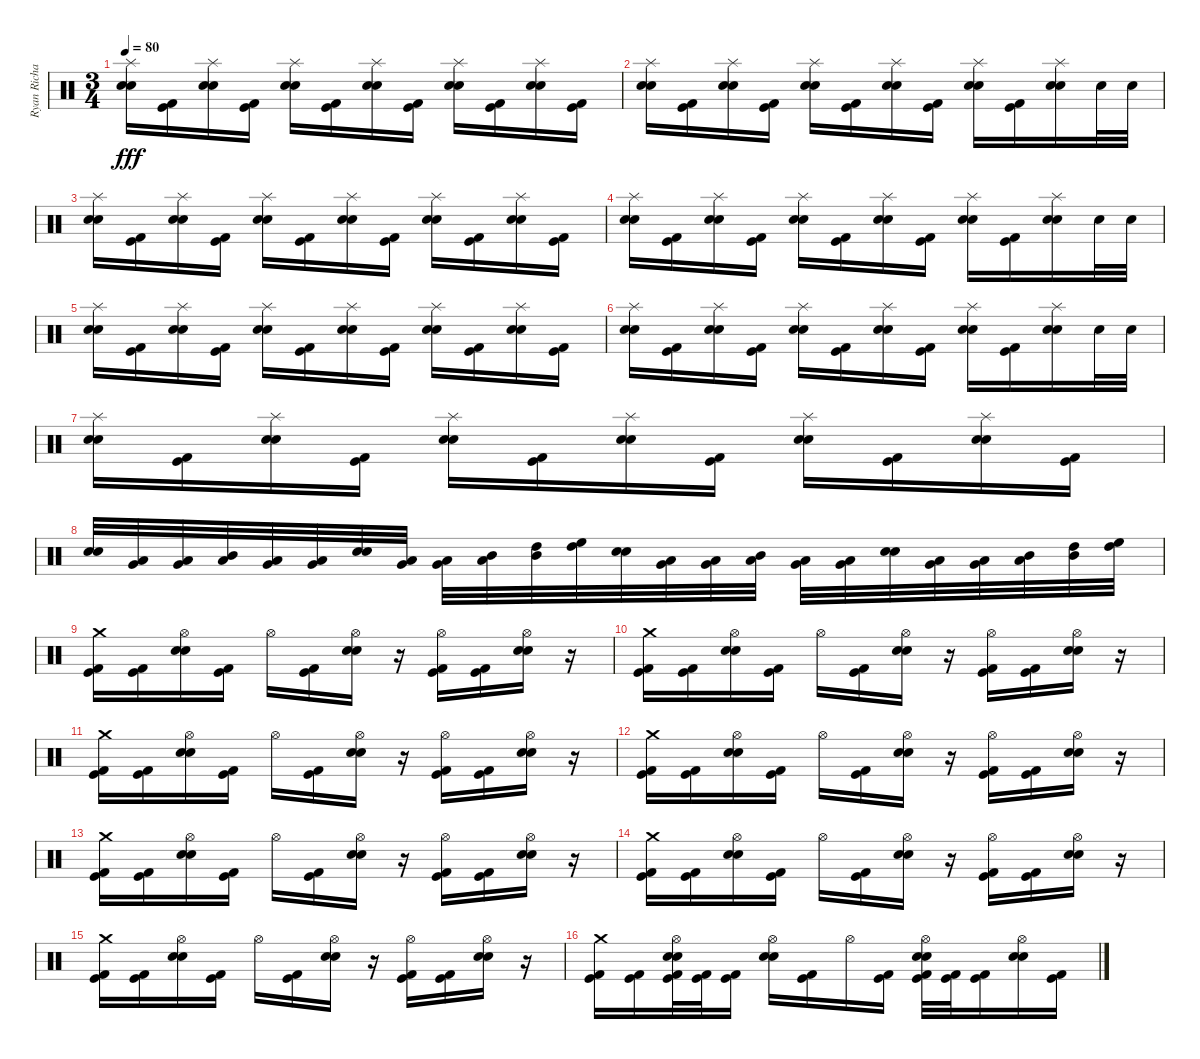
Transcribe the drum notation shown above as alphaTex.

\track ("Ryan Richards" "Ryan Richa") {instrument percussion}
\staff {score}
\articulation defaults
\ts (3 4)
\tempo 80
\clef neutral
\ks c
("Splash (hit)" "Snare (hit) 2" "Electric Snare (hit)").16{dy fff} ("Kick (hit)" "Kick (hit) 2").16 ("Splash (hit)" "Snare (hit) 2" "Electric Snare (hit)").16 ("Kick (hit)" "Kick (hit) 2").16 ("Splash (hit)" "Snare (hit) 2" "Electric Snare (hit)").16 ("Kick (hit)" "Kick (hit) 2").16 ("Splash (hit)" "Snare (hit) 2" "Electric Snare (hit)").16 ("Kick (hit)" "Kick (hit) 2").16 ("Splash (hit)" "Snare (hit) 2" "Electric Snare (hit)").16 ("Kick (hit)" "Kick (hit) 2").16 ("Splash (hit)" "Snare (hit) 2" "Electric Snare (hit)").16 ("Kick (hit)" "Kick (hit) 2").16 |
("Splash (hit)" "Snare (hit) 2" "Electric Snare (hit)").16 ("Kick (hit)" "Kick (hit) 2").16 ("Splash (hit)" "Snare (hit) 2" "Electric Snare (hit)").16 ("Kick (hit)" "Kick (hit) 2").16 ("Splash (hit)" "Snare (hit) 2" "Electric Snare (hit)").16 ("Kick (hit)" "Kick (hit) 2").16 ("Splash (hit)" "Snare (hit) 2" "Electric Snare (hit)").16 ("Kick (hit)" "Kick (hit) 2").16 ("Splash (hit)" "Snare (hit) 2" "Electric Snare (hit)").16 ("Kick (hit)" "Kick (hit) 2").16 ("Splash (hit)" "Snare (hit) 2" "Electric Snare (hit)").16 "Electric Snare (hit)".32 "Electric Snare (hit)".32 |
("Splash (hit)" "Snare (hit) 2" "Electric Snare (hit)").16 ("Kick (hit)" "Kick (hit) 2").16 ("Splash (hit)" "Snare (hit) 2" "Electric Snare (hit)").16 ("Kick (hit)" "Kick (hit) 2").16 ("Splash (hit)" "Snare (hit) 2" "Electric Snare (hit)").16 ("Kick (hit)" "Kick (hit) 2").16 ("Splash (hit)" "Snare (hit) 2" "Electric Snare (hit)").16 ("Kick (hit)" "Kick (hit) 2").16 ("Splash (hit)" "Snare (hit) 2" "Electric Snare (hit)").16 ("Kick (hit)" "Kick (hit) 2").16 ("Splash (hit)" "Snare (hit) 2" "Electric Snare (hit)").16 ("Kick (hit)" "Kick (hit) 2").16 |
("Splash (hit)" "Snare (hit) 2" "Electric Snare (hit)").16 ("Kick (hit)" "Kick (hit) 2").16 ("Splash (hit)" "Snare (hit) 2" "Electric Snare (hit)").16 ("Kick (hit)" "Kick (hit) 2").16 ("Splash (hit)" "Snare (hit) 2" "Electric Snare (hit)").16 ("Kick (hit)" "Kick (hit) 2").16 ("Splash (hit)" "Snare (hit) 2" "Electric Snare (hit)").16 ("Kick (hit)" "Kick (hit) 2").16 ("Splash (hit)" "Snare (hit) 2" "Electric Snare (hit)").16 ("Kick (hit)" "Kick (hit) 2").16 ("Splash (hit)" "Snare (hit) 2" "Electric Snare (hit)").16 "Electric Snare (hit)".32 "Electric Snare (hit)".32 |
("Splash (hit)" "Snare (hit) 2" "Electric Snare (hit)").16 ("Kick (hit)" "Kick (hit) 2").16 ("Splash (hit)" "Snare (hit) 2" "Electric Snare (hit)").16 ("Kick (hit)" "Kick (hit) 2").16 ("Splash (hit)" "Snare (hit) 2" "Electric Snare (hit)").16 ("Kick (hit)" "Kick (hit) 2").16 ("Splash (hit)" "Snare (hit) 2" "Electric Snare (hit)").16 ("Kick (hit)" "Kick (hit) 2").16 ("Splash (hit)" "Snare (hit) 2" "Electric Snare (hit)").16 ("Kick (hit)" "Kick (hit) 2").16 ("Splash (hit)" "Snare (hit) 2" "Electric Snare (hit)").16 ("Kick (hit)" "Kick (hit) 2").16 |
("Splash (hit)" "Snare (hit) 2" "Electric Snare (hit)").16 ("Kick (hit)" "Kick (hit) 2").16 ("Splash (hit)" "Snare (hit) 2" "Electric Snare (hit)").16 ("Kick (hit)" "Kick (hit) 2").16 ("Splash (hit)" "Snare (hit) 2" "Electric Snare (hit)").16 ("Kick (hit)" "Kick (hit) 2").16 ("Splash (hit)" "Snare (hit) 2" "Electric Snare (hit)").16 ("Kick (hit)" "Kick (hit) 2").16 ("Splash (hit)" "Snare (hit) 2" "Electric Snare (hit)").16 ("Kick (hit)" "Kick (hit) 2").16 ("Splash (hit)" "Snare (hit) 2" "Electric Snare (hit)").16 "Electric Snare (hit)".32 "Electric Snare (hit)".32 |
("Splash (hit)" "Snare (hit) 2" "Electric Snare (hit)").16 ("Kick (hit)" "Kick (hit) 2").16 ("Splash (hit)" "Snare (hit) 2" "Electric Snare (hit)").16 ("Kick (hit)" "Kick (hit) 2").16 ("Splash (hit)" "Snare (hit) 2" "Electric Snare (hit)").16 ("Kick (hit)" "Kick (hit) 2").16 ("Splash (hit)" "Snare (hit) 2" "Electric Snare (hit)").16 ("Kick (hit)" "Kick (hit) 2").16 ("Splash (hit)" "Snare (hit) 2" "Electric Snare (hit)").16 ("Kick (hit)" "Kick (hit) 2").16 ("Splash (hit)" "Snare (hit) 2" "Electric Snare (hit)").16 ("Kick (hit)" "Kick (hit) 2").16 |
("Snare (hit) 2" "Electric Snare (hit)").32 ("Very Low Tom (hit)" "Low Floor Tom (hit)").32 ("Low Tom (hit)" "Very Low Tom (hit)").32 ("Mid Tom (hit)" "Low Tom (hit)").32 ("Low Tom (hit)" "Very Low Tom (hit)").32 ("Very Low Tom (hit)" "Low Floor Tom (hit)").32 ("Snare (hit) 2" "Electric Snare (hit)").32 ("Very Low Tom (hit)" "Low Floor Tom (hit)").32 ("Low Tom (hit)" "Very Low Tom (hit)").32 ("Mid Tom (hit)" "Low Tom (hit)").32 ("High Tom (hit)" "Mid Tom (hit)").32 ("High Floor Tom (hit)" "High Tom (hit)").32 ("Snare (hit) 2" "Electric Snare (hit)").32 ("Very Low Tom (hit)" "Low Floor Tom (hit)").32 ("Low Tom (hit)" "Very Low Tom (hit)").32 ("Mid Tom (hit)" "Low Tom (hit)").32 ("Low Tom (hit)" "Very Low Tom (hit)").32 ("Very Low Tom (hit)" "Low Floor Tom (hit)").32 ("Snare (hit) 2" "Electric Snare (hit)").32 ("Very Low Tom (hit)" "Low Floor Tom (hit)").32 ("Low Tom (hit)" "Very Low Tom (hit)").32 ("Mid Tom (hit)" "Low Tom (hit)").32 ("High Tom (hit)" "Mid Tom (hit)").32 ("High Floor Tom (hit)" "High Tom (hit)").32 |
("Kick (hit)" "Crash medium (hit)" "Kick (hit) 2").16 ("Kick (hit)" "Kick (hit) 2").16 ("Hi-Hat (open)" "Snare (hit) 2" "Electric Snare (hit)").16 ("Kick (hit)" "Kick (hit) 2").16 "Hi-Hat (open)".16 ("Kick (hit)" "Kick (hit) 2").16 ("Hi-Hat (open)" "Snare (hit) 2" "Electric Snare (hit)").16 r.16 ("Kick (hit)" "Hi-Hat (open)" "Kick (hit) 2").16 ("Kick (hit)" "Kick (hit) 2").16 ("Hi-Hat (open)" "Snare (hit) 2" "Electric Snare (hit)").16 r.16 |
("Kick (hit)" "Crash medium (hit)" "Kick (hit) 2").16 ("Kick (hit)" "Kick (hit) 2").16 ("Hi-Hat (open)" "Snare (hit) 2" "Electric Snare (hit)").16 ("Kick (hit)" "Kick (hit) 2").16 "Hi-Hat (open)".16 ("Kick (hit)" "Kick (hit) 2").16 ("Hi-Hat (open)" "Snare (hit) 2" "Electric Snare (hit)").16 r.16 ("Kick (hit)" "Hi-Hat (open)" "Kick (hit) 2").16 ("Kick (hit)" "Kick (hit) 2").16 ("Hi-Hat (open)" "Snare (hit) 2" "Electric Snare (hit)").16 r.16 |
("Kick (hit)" "Crash medium (hit)" "Kick (hit) 2").16 ("Kick (hit)" "Kick (hit) 2").16 ("Hi-Hat (open)" "Snare (hit) 2" "Electric Snare (hit)").16 ("Kick (hit)" "Kick (hit) 2").16 "Hi-Hat (open)".16 ("Kick (hit)" "Kick (hit) 2").16 ("Hi-Hat (open)" "Snare (hit) 2" "Electric Snare (hit)").16 r.16 ("Kick (hit)" "Hi-Hat (open)" "Kick (hit) 2").16 ("Kick (hit)" "Kick (hit) 2").16 ("Hi-Hat (open)" "Snare (hit) 2" "Electric Snare (hit)").16 r.16 |
("Kick (hit)" "Crash medium (hit)" "Kick (hit) 2").16 ("Kick (hit)" "Kick (hit) 2").16 ("Hi-Hat (open)" "Snare (hit) 2" "Electric Snare (hit)").16 ("Kick (hit)" "Kick (hit) 2").16 "Hi-Hat (open)".16 ("Kick (hit)" "Kick (hit) 2").16 ("Hi-Hat (open)" "Snare (hit) 2" "Electric Snare (hit)").16 r.16 ("Kick (hit)" "Hi-Hat (open)" "Kick (hit) 2").16 ("Kick (hit)" "Kick (hit) 2").16 ("Hi-Hat (open)" "Snare (hit) 2" "Electric Snare (hit)").16 r.16 |
("Kick (hit)" "Crash medium (hit)" "Kick (hit) 2").16 ("Kick (hit)" "Kick (hit) 2").16 ("Hi-Hat (open)" "Snare (hit) 2" "Electric Snare (hit)").16 ("Kick (hit)" "Kick (hit) 2").16 "Hi-Hat (open)".16 ("Kick (hit)" "Kick (hit) 2").16 ("Hi-Hat (open)" "Snare (hit) 2" "Electric Snare (hit)").16 r.16 ("Kick (hit)" "Hi-Hat (open)" "Kick (hit) 2").16 ("Kick (hit)" "Kick (hit) 2").16 ("Hi-Hat (open)" "Snare (hit) 2" "Electric Snare (hit)").16 r.16 |
("Kick (hit)" "Crash medium (hit)" "Kick (hit) 2").16 ("Kick (hit)" "Kick (hit) 2").16 ("Hi-Hat (open)" "Snare (hit) 2" "Electric Snare (hit)").16 ("Kick (hit)" "Kick (hit) 2").16 "Hi-Hat (open)".16 ("Kick (hit)" "Kick (hit) 2").16 ("Hi-Hat (open)" "Snare (hit) 2" "Electric Snare (hit)").16 r.16 ("Kick (hit)" "Hi-Hat (open)" "Kick (hit) 2").16 ("Kick (hit)" "Kick (hit) 2").16 ("Hi-Hat (open)" "Snare (hit) 2" "Electric Snare (hit)").16 r.16 |
("Kick (hit)" "Crash medium (hit)" "Kick (hit) 2").16 ("Kick (hit)" "Kick (hit) 2").16 ("Hi-Hat (open)" "Snare (hit) 2" "Electric Snare (hit)").16 ("Kick (hit)" "Kick (hit) 2").16 "Hi-Hat (open)".16 ("Kick (hit)" "Kick (hit) 2").16 ("Hi-Hat (open)" "Snare (hit) 2" "Electric Snare (hit)").16 r.16 ("Kick (hit)" "Hi-Hat (open)" "Kick (hit) 2").16 ("Kick (hit)" "Kick (hit) 2").16 ("Hi-Hat (open)" "Snare (hit) 2" "Electric Snare (hit)").16 r.16 |
("Kick (hit)" "Crash medium (hit)" "Kick (hit) 2").16 ("Kick (hit)" "Kick (hit) 2").16 ("Kick (hit)" "Hi-Hat (open)" "Snare (hit) 2" "Electric Snare (hit)" "Kick (hit) 2").32 ("Kick (hit)" "Kick (hit) 2").32 ("Kick (hit)" "Kick (hit) 2").16 ("Hi-Hat (open)" "Snare (hit) 2" "Electric Snare (hit)").16 ("Kick (hit)" "Kick (hit) 2").16 "Hi-Hat (open)".16 ("Kick (hit)" "Kick (hit) 2").16 ("Kick (hit)" "Hi-Hat (open)" "Snare (hit) 2" "Electric Snare (hit)" "Kick (hit) 2").32 ("Kick (hit)" "Kick (hit) 2").32 ("Kick (hit)" "Kick (hit) 2").16 ("Hi-Hat (open)" "Snare (hit) 2" "Electric Snare (hit)").16 ("Kick (hit)" "Kick (hit) 2").16
